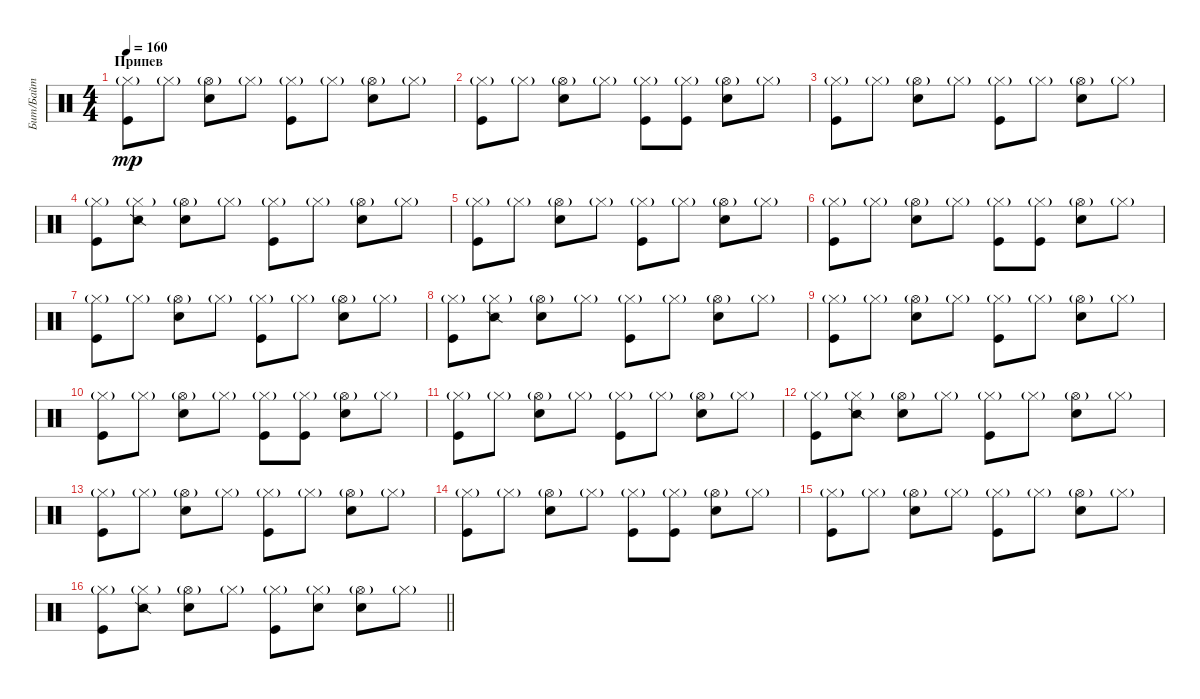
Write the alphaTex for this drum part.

\track ("Бит/Байт" "Бит/Байт") {instrument percussion}
\staff {score}
\articulation defaults
\ts (4 4)
\section ("" "Припев")
\tempo 160
\clef neutral
\ks c
("Hi-Hat (closed)"{g} "Kick (hit)").8{dy mp} "Hi-Hat (closed)"{g}.8 ("Hi-Hat (open)"{g} "Snare (hit) 2").8 "Hi-Hat (closed)"{g}.8 ("Hi-Hat (closed)"{g} "Kick (hit)").8 "Hi-Hat (closed)"{g}.8 ("Hi-Hat (open)"{g} "Snare (hit) 2").8 "Hi-Hat (closed)"{g}.8 |
("Hi-Hat (closed)"{g} "Kick (hit)").8 "Hi-Hat (closed)"{g}.8 ("Hi-Hat (open)"{g} "Snare (hit) 2").8 "Hi-Hat (closed)"{g}.8 ("Hi-Hat (closed)"{g} "Kick (hit)").8 ("Hi-Hat (closed)"{g} "Kick (hit)").8 ("Hi-Hat (open)"{g} "Snare (hit) 2").8 "Hi-Hat (closed)"{g}.8 |
("Hi-Hat (closed)"{g} "Kick (hit)").8 "Hi-Hat (closed)"{g}.8 ("Hi-Hat (open)"{g} "Snare (hit) 2").8 "Hi-Hat (closed)"{g}.8 ("Hi-Hat (closed)"{g} "Kick (hit)").8 "Hi-Hat (closed)"{g}.8 ("Hi-Hat (open)"{g} "Snare (hit) 2").8 "Hi-Hat (closed)"{g}.8 |
("Hi-Hat (closed)"{g} "Kick (hit)").8 ("Hi-Hat (closed)"{g} "Snare (side stick) 2").8 ("Hi-Hat (open)"{g} "Snare (hit) 2").8 "Hi-Hat (closed)"{g}.8 ("Hi-Hat (closed)"{g} "Kick (hit)").8 "Hi-Hat (closed)"{g}.8 ("Hi-Hat (open)"{g} "Snare (hit) 2").8 "Hi-Hat (closed)"{g}.8 |
("Hi-Hat (closed)"{g} "Kick (hit)").8 "Hi-Hat (closed)"{g}.8 ("Hi-Hat (open)"{g} "Snare (hit) 2").8 "Hi-Hat (closed)"{g}.8 ("Hi-Hat (closed)"{g} "Kick (hit)").8 "Hi-Hat (closed)"{g}.8 ("Hi-Hat (open)"{g} "Snare (hit) 2").8 "Hi-Hat (closed)"{g}.8 |
("Hi-Hat (closed)"{g} "Kick (hit)").8 "Hi-Hat (closed)"{g}.8 ("Hi-Hat (open)"{g} "Snare (hit) 2").8 "Hi-Hat (closed)"{g}.8 ("Hi-Hat (closed)"{g} "Kick (hit)").8 ("Hi-Hat (closed)"{g} "Kick (hit)").8 ("Hi-Hat (open)"{g} "Snare (hit) 2").8 "Hi-Hat (closed)"{g}.8 |
("Hi-Hat (closed)"{g} "Kick (hit)").8 "Hi-Hat (closed)"{g}.8 ("Hi-Hat (open)"{g} "Snare (hit) 2").8 "Hi-Hat (closed)"{g}.8 ("Hi-Hat (closed)"{g} "Kick (hit)").8 "Hi-Hat (closed)"{g}.8 ("Hi-Hat (open)"{g} "Snare (hit) 2").8 "Hi-Hat (closed)"{g}.8 |
("Hi-Hat (closed)"{g} "Kick (hit)").8 ("Hi-Hat (closed)"{g} "Snare (side stick) 2").8 ("Hi-Hat (open)"{g} "Snare (hit) 2").8 "Hi-Hat (closed)"{g}.8 ("Hi-Hat (closed)"{g} "Kick (hit)").8 "Hi-Hat (closed)"{g}.8 ("Hi-Hat (open)"{g} "Snare (hit) 2").8 "Hi-Hat (closed)"{g}.8 |
("Hi-Hat (closed)"{g} "Kick (hit)").8 "Hi-Hat (closed)"{g}.8 ("Hi-Hat (open)"{g} "Snare (hit) 2").8 "Hi-Hat (closed)"{g}.8 ("Hi-Hat (closed)"{g} "Kick (hit)").8 "Hi-Hat (closed)"{g}.8 ("Hi-Hat (open)"{g} "Snare (hit) 2").8 "Hi-Hat (closed)"{g}.8 |
("Hi-Hat (closed)"{g} "Kick (hit)").8 "Hi-Hat (closed)"{g}.8 ("Hi-Hat (open)"{g} "Snare (hit) 2").8 "Hi-Hat (closed)"{g}.8 ("Hi-Hat (closed)"{g} "Kick (hit)").8 ("Hi-Hat (closed)"{g} "Kick (hit)").8 ("Hi-Hat (open)"{g} "Snare (hit) 2").8 "Hi-Hat (closed)"{g}.8 |
("Hi-Hat (closed)"{g} "Kick (hit)").8 "Hi-Hat (closed)"{g}.8 ("Hi-Hat (open)"{g} "Snare (hit) 2").8 "Hi-Hat (closed)"{g}.8 ("Hi-Hat (closed)"{g} "Kick (hit)").8 "Hi-Hat (closed)"{g}.8 ("Hi-Hat (open)"{g} "Snare (hit) 2").8 "Hi-Hat (closed)"{g}.8 |
("Hi-Hat (closed)"{g} "Kick (hit)").8 ("Hi-Hat (closed)"{g} "Snare (side stick) 2").8 ("Hi-Hat (open)"{g} "Snare (hit) 2").8 "Hi-Hat (closed)"{g}.8 ("Hi-Hat (closed)"{g} "Kick (hit)").8 "Hi-Hat (closed)"{g}.8 ("Hi-Hat (open)"{g} "Snare (hit) 2").8 "Hi-Hat (closed)"{g}.8 |
("Hi-Hat (closed)"{g} "Kick (hit)").8 "Hi-Hat (closed)"{g}.8 ("Hi-Hat (open)"{g} "Snare (hit) 2").8 "Hi-Hat (closed)"{g}.8 ("Hi-Hat (closed)"{g} "Kick (hit)").8 "Hi-Hat (closed)"{g}.8 ("Hi-Hat (open)"{g} "Snare (hit) 2").8 "Hi-Hat (closed)"{g}.8 |
("Hi-Hat (closed)"{g} "Kick (hit)").8 "Hi-Hat (closed)"{g}.8 ("Hi-Hat (open)"{g} "Snare (hit) 2").8 "Hi-Hat (closed)"{g}.8 ("Hi-Hat (closed)"{g} "Kick (hit)").8 ("Hi-Hat (closed)"{g} "Kick (hit)").8 ("Hi-Hat (open)"{g} "Snare (hit) 2").8 "Hi-Hat (closed)"{g}.8 |
("Hi-Hat (closed)"{g} "Kick (hit)").8 "Hi-Hat (closed)"{g}.8 ("Hi-Hat (open)"{g} "Snare (hit) 2").8 "Hi-Hat (closed)"{g}.8 ("Hi-Hat (closed)"{g} "Kick (hit)").8 "Hi-Hat (closed)"{g}.8 ("Hi-Hat (open)"{g} "Snare (hit) 2").8 "Hi-Hat (closed)"{g}.8 |
\barLineRight lightlight
("Hi-Hat (closed)"{g} "Kick (hit)").8 ("Hi-Hat (closed)"{g} "Snare (side stick) 2").8 ("Hi-Hat (open)"{g} "Snare (hit) 2").8 "Hi-Hat (closed)"{g}.8 ("Hi-Hat (closed)"{g} "Kick (hit)").8 ("Hi-Hat (closed)"{g} "Snare (hit) 2").8 ("Hi-Hat (open)"{g} "Snare (hit) 2").8 "Hi-Hat (closed)"{g}.8
